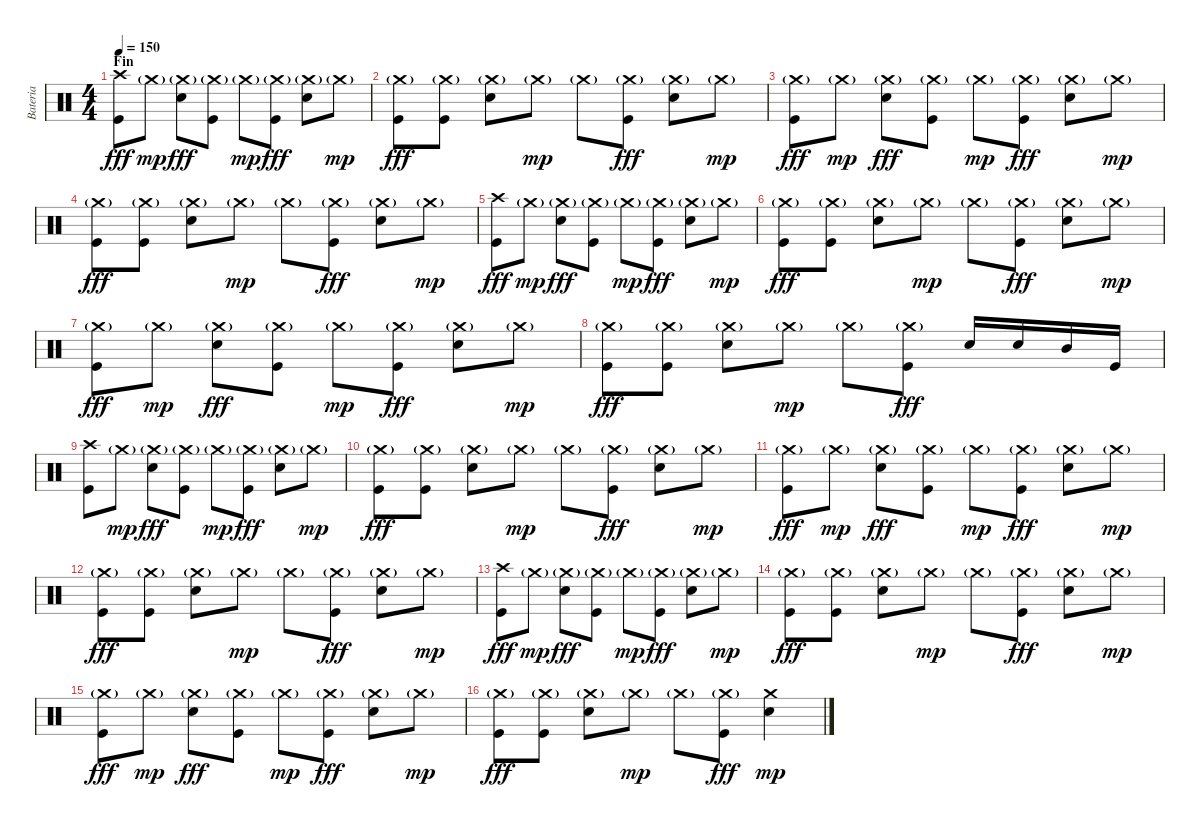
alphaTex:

\track ("Bateria" "Bateria") {instrument percussion}
\staff {score}
\articulation defaults
\ts (4 4)
\section ("" "Fin")
\tempo 150
\clef neutral
\ks c
("Crash high (hit)" "Kick (hit)").8{dy fff} "Crash medium (hit)"{g}.8{dy mp} ("Crash medium (hit)"{g} "Electric Snare (hit)").8{dy fff} ("Crash medium (hit)"{g} "Kick (hit)").8 "Crash medium (hit)"{g}.8{dy mp} ("Crash medium (hit)"{g} "Kick (hit)").8{dy fff} ("Crash medium (hit)"{g} "Electric Snare (hit)").8 "Crash medium (hit)"{g}.8{dy mp} |
("Crash medium (hit)"{g} "Kick (hit)").8{dy fff} ("Crash medium (hit)"{g} "Kick (hit)").8 ("Crash medium (hit)"{g} "Electric Snare (hit)").8 "Crash medium (hit)"{g}.8{dy mp} "Crash medium (hit)"{g}.8 ("Crash medium (hit)"{g} "Kick (hit)").8{dy fff} ("Crash medium (hit)"{g} "Electric Snare (hit)").8 "Crash medium (hit)"{g}.8{dy mp} |
("Crash medium (hit)"{g} "Kick (hit)").8{dy fff} "Crash medium (hit)"{g}.8{dy mp} ("Crash medium (hit)"{g} "Electric Snare (hit)").8{dy fff} ("Crash medium (hit)"{g} "Kick (hit)").8 "Crash medium (hit)"{g}.8{dy mp} ("Crash medium (hit)"{g} "Kick (hit)").8{dy fff} ("Crash medium (hit)"{g} "Electric Snare (hit)").8 "Crash medium (hit)"{g}.8{dy mp} |
("Crash medium (hit)"{g} "Kick (hit)").8{dy fff} ("Crash medium (hit)"{g} "Kick (hit)").8 ("Crash medium (hit)"{g} "Electric Snare (hit)").8 "Crash medium (hit)"{g}.8{dy mp} "Crash medium (hit)"{g}.8 ("Crash medium (hit)"{g} "Kick (hit)").8{dy fff} ("Crash medium (hit)"{g} "Electric Snare (hit)").8 "Crash medium (hit)"{g}.8{dy mp} |
("Crash high (hit)" "Kick (hit)").8{dy fff} "Crash medium (hit)"{g}.8{dy mp} ("Crash medium (hit)"{g} "Electric Snare (hit)").8{dy fff} ("Crash medium (hit)"{g} "Kick (hit)").8 "Crash medium (hit)"{g}.8{dy mp} ("Crash medium (hit)"{g} "Kick (hit)").8{dy fff} ("Crash medium (hit)"{g} "Electric Snare (hit)").8 "Crash medium (hit)"{g}.8{dy mp} |
("Crash medium (hit)"{g} "Kick (hit)").8{dy fff} ("Crash medium (hit)"{g} "Kick (hit)").8 ("Crash medium (hit)"{g} "Electric Snare (hit)").8 "Crash medium (hit)"{g}.8{dy mp} "Crash medium (hit)"{g}.8 ("Crash medium (hit)"{g} "Kick (hit)").8{dy fff} ("Crash medium (hit)"{g} "Electric Snare (hit)").8 "Crash medium (hit)"{g}.8{dy mp} |
("Crash medium (hit)"{g} "Kick (hit)").8{dy fff} "Crash medium (hit)"{g}.8{dy mp} ("Crash medium (hit)"{g} "Electric Snare (hit)").8{dy fff} ("Crash medium (hit)"{g} "Kick (hit)").8 "Crash medium (hit)"{g}.8{dy mp} ("Crash medium (hit)"{g} "Kick (hit)").8{dy fff} ("Crash medium (hit)"{g} "Electric Snare (hit)").8 "Crash medium (hit)"{g}.8{dy mp} |
("Crash medium (hit)"{g} "Kick (hit)").8{dy fff} ("Crash medium (hit)"{g} "Kick (hit)").8 ("Crash medium (hit)"{g} "Electric Snare (hit)").8 "Crash medium (hit)"{g}.8{dy mp} "Crash medium (hit)"{g}.8 ("Crash medium (hit)"{g} "Kick (hit)").8{dy fff} "Electric Snare (hit)".16 "Electric Snare (hit)".16 "Mid Tom (hit)".16 "Kick (hit)".16 |
("Crash high (hit)" "Kick (hit)").8 "Crash medium (hit)"{g}.8{dy mp} ("Crash medium (hit)"{g} "Electric Snare (hit)").8{dy fff} ("Crash medium (hit)"{g} "Kick (hit)").8 "Crash medium (hit)"{g}.8{dy mp} ("Crash medium (hit)"{g} "Kick (hit)").8{dy fff} ("Crash medium (hit)"{g} "Electric Snare (hit)").8 "Crash medium (hit)"{g}.8{dy mp} |
("Crash medium (hit)"{g} "Kick (hit)").8{dy fff} ("Crash medium (hit)"{g} "Kick (hit)").8 ("Crash medium (hit)"{g} "Electric Snare (hit)").8 "Crash medium (hit)"{g}.8{dy mp} "Crash medium (hit)"{g}.8 ("Crash medium (hit)"{g} "Kick (hit)").8{dy fff} ("Crash medium (hit)"{g} "Electric Snare (hit)").8 "Crash medium (hit)"{g}.8{dy mp} |
("Crash medium (hit)"{g} "Kick (hit)").8{dy fff} "Crash medium (hit)"{g}.8{dy mp} ("Crash medium (hit)"{g} "Electric Snare (hit)").8{dy fff} ("Crash medium (hit)"{g} "Kick (hit)").8 "Crash medium (hit)"{g}.8{dy mp} ("Crash medium (hit)"{g} "Kick (hit)").8{dy fff} ("Crash medium (hit)"{g} "Electric Snare (hit)").8 "Crash medium (hit)"{g}.8{dy mp} |
("Crash medium (hit)"{g} "Kick (hit)").8{dy fff} ("Crash medium (hit)"{g} "Kick (hit)").8 ("Crash medium (hit)"{g} "Electric Snare (hit)").8 "Crash medium (hit)"{g}.8{dy mp} "Crash medium (hit)"{g}.8 ("Crash medium (hit)"{g} "Kick (hit)").8{dy fff} ("Crash medium (hit)"{g} "Electric Snare (hit)").8 "Crash medium (hit)"{g}.8{dy mp} |
("Crash high (hit)" "Kick (hit)").8{dy fff} "Crash medium (hit)"{g}.8{dy mp} ("Crash medium (hit)"{g} "Electric Snare (hit)").8{dy fff} ("Crash medium (hit)"{g} "Kick (hit)").8 "Crash medium (hit)"{g}.8{dy mp} ("Crash medium (hit)"{g} "Kick (hit)").8{dy fff} ("Crash medium (hit)"{g} "Electric Snare (hit)").8 "Crash medium (hit)"{g}.8{dy mp} |
("Crash medium (hit)"{g} "Kick (hit)").8{dy fff} ("Crash medium (hit)"{g} "Kick (hit)").8 ("Crash medium (hit)"{g} "Electric Snare (hit)").8 "Crash medium (hit)"{g}.8{dy mp} "Crash medium (hit)"{g}.8 ("Crash medium (hit)"{g} "Kick (hit)").8{dy fff} ("Crash medium (hit)"{g} "Electric Snare (hit)").8 "Crash medium (hit)"{g}.8{dy mp} |
("Crash medium (hit)"{g} "Kick (hit)").8{dy fff} "Crash medium (hit)"{g}.8{dy mp} ("Crash medium (hit)"{g} "Electric Snare (hit)").8{dy fff} ("Crash medium (hit)"{g} "Kick (hit)").8 "Crash medium (hit)"{g}.8{dy mp} ("Crash medium (hit)"{g} "Kick (hit)").8{dy fff} ("Crash medium (hit)"{g} "Electric Snare (hit)").8 "Crash medium (hit)"{g}.8{dy mp} |
("Crash medium (hit)"{g} "Kick (hit)").8{dy fff} ("Crash medium (hit)"{g} "Kick (hit)").8 ("Crash medium (hit)"{g} "Electric Snare (hit)").8 "Crash medium (hit)"{g}.8{dy mp} "Crash medium (hit)"{g}.8 ("Crash medium (hit)"{g} "Kick (hit)").8{dy fff} ("Crash medium (hit)" "Electric Snare (hit)").4{dy mp}
